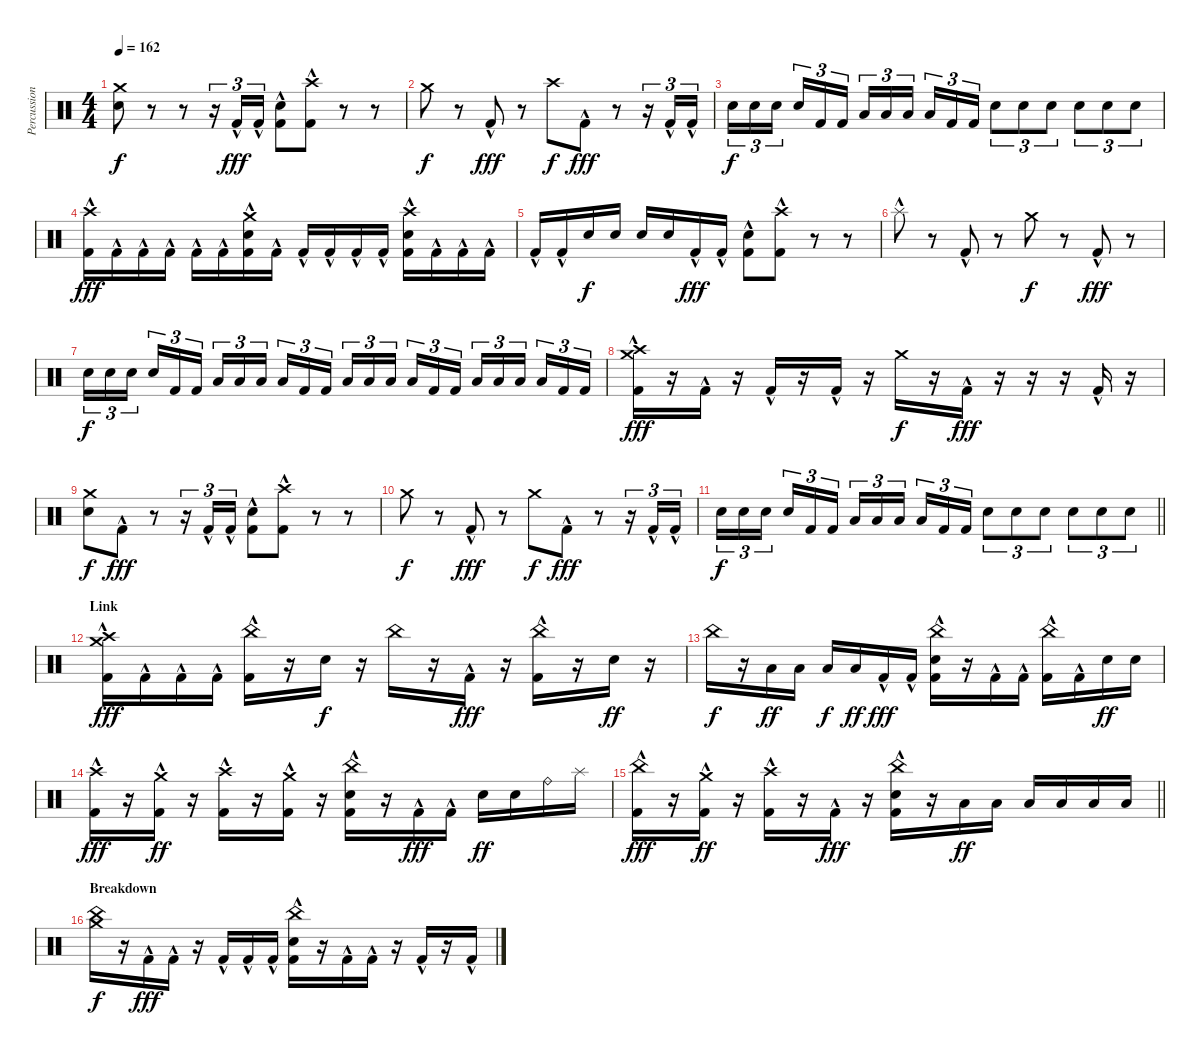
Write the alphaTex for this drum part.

\track ("Percussion" "Percussion") {instrument percussion}
\staff {score}
\articulation defaults
\ts (4 4)
\tempo 162
\clef neutral
\ks c
("Crash medium (hit)" "Electric Snare (hit)").8{dy f} r.8 r.8 r.16{tu (3 2)} "Kick (hit) 2"{hac}.16{tu (3 2) dy fff} "Kick (hit) 2"{hac}.16{tu (3 2)} ("Kick (hit) 2"{hac} "Electric Snare (hit)").8 ("Kick (hit) 2"{hac} "Crash high (hit)").8 r.8 r.8 |
"Crash medium (hit)".8{dy f} r.8 "Kick (hit) 2"{hac}.8{dy fff} r.8 "Crash high (hit)".8{dy f} "Kick (hit) 2"{hac}.8{dy fff} r.8 r.16{tu (3 2)} "Kick (hit) 2"{hac}.16{tu (3 2)} "Kick (hit) 2"{hac}.16{tu (3 2)} |
"Electric Snare (hit)".16{tu (3 2) dy f} "Electric Snare (hit)".16{tu (3 2)} "Electric Snare (hit)".16{tu (3 2) beam splitsecondary} "Electric Snare (hit)".16{tu (3 2)} "Kick (hit) 2".16{tu (3 2)} "Kick (hit) 2".16{tu (3 2)} "Low Tom (hit)".16{tu (3 2)} "Low Tom (hit)".16{tu (3 2)} "Low Tom (hit)".16{tu (3 2) beam splitsecondary} "Low Tom (hit)".16{tu (3 2)} "Kick (hit) 2".16{tu (3 2)} "Kick (hit) 2".16{tu (3 2)} "Electric Snare (hit)".8{tu (3 2)} "Electric Snare (hit)".8{tu (3 2)} "Electric Snare (hit)".8{tu (3 2)} "Electric Snare (hit)".8{tu (3 2)} "Electric Snare (hit)".8{tu (3 2)} "Electric Snare (hit)".8{tu (3 2)} |
("Kick (hit) 2"{hac} "Crash high (hit)").16{dy fff} "Kick (hit) 2"{hac}.16 "Kick (hit) 2"{hac}.16 "Kick (hit) 2"{hac}.16 "Kick (hit) 2"{hac}.16 "Kick (hit) 2"{hac}.16 ("Kick (hit) 2"{hac} "Crash medium (hit)" "Electric Snare (hit)").16 "Kick (hit) 2"{hac}.16 "Kick (hit) 2"{hac}.16 "Kick (hit) 2"{hac}.16 "Kick (hit) 2"{hac}.16 "Kick (hit) 2"{hac}.16 ("Kick (hit) 2"{hac} "Crash high (hit)" "Electric Snare (hit)").16 "Kick (hit) 2"{hac}.16 "Kick (hit) 2"{hac}.16 "Kick (hit) 2"{hac}.16 |
"Kick (hit) 2"{hac}.16 "Kick (hit) 2"{hac}.16 "Electric Snare (hit)".16{dy f} "Electric Snare (hit)".16 "Electric Snare (hit)".16 "Electric Snare (hit)".16 "Kick (hit) 2"{hac}.16{dy fff} "Kick (hit) 2"{hac}.16 ("Kick (hit) 2"{hac} "Electric Snare (hit)").8 ("Kick (hit) 2"{hac} "Crash high (hit)").8 r.8 r.8 |
"Splash (hit)"{hac}.8 r.8 "Kick (hit) 2"{hac}.8 r.8 "Crash medium (hit)".8{dy f} r.8 "Kick (hit) 2"{hac}.8{dy fff} r.8 |
"Electric Snare (hit)".16{tu (3 2) dy f} "Electric Snare (hit)".16{tu (3 2)} "Electric Snare (hit)".16{tu (3 2) beam splitsecondary} "Electric Snare (hit)".16{tu (3 2)} "Kick (hit) 2".16{tu (3 2)} "Kick (hit) 2".16{tu (3 2)} "Low Tom (hit)".16{tu (3 2)} "Low Tom (hit)".16{tu (3 2)} "Low Tom (hit)".16{tu (3 2) beam splitsecondary} "Low Tom (hit)".16{tu (3 2)} "Kick (hit) 2".16{tu (3 2)} "Kick (hit) 2".16{tu (3 2)} "Low Floor Tom (hit)".16{tu (3 2)} "Low Floor Tom (hit)".16{tu (3 2)} "Low Floor Tom (hit)".16{tu (3 2) beam splitsecondary} "Low Floor Tom (hit)".16{tu (3 2)} "Kick (hit) 2".16{tu (3 2)} "Kick (hit) 2".16{tu (3 2)} "Low Floor Tom (hit)".16{tu (3 2)} "Low Floor Tom (hit)".16{tu (3 2)} "Low Floor Tom (hit)".16{tu (3 2) beam splitsecondary} "Low Floor Tom (hit)".16{tu (3 2)} "Kick (hit) 2".16{tu (3 2)} "Kick (hit) 2".16{tu (3 2)} |
("Kick (hit) 2"{hac} "Crash medium (hit)" "Crash high (hit)").16{dy fff} r.16 "Kick (hit) 2"{hac}.16 r.16 "Kick (hit) 2"{hac}.16 r.16 "Kick (hit) 2"{hac}.16 r.16 "Crash medium (hit)".16{dy f} r.16 "Kick (hit) 2"{hac}.16{dy fff} r.16 r.16 r.16 "Kick (hit) 2"{hac}.16 r.16 |
("Crash medium (hit)" "Electric Snare (hit)").8{dy f} "Kick (hit) 2"{hac}.8{dy fff} r.8 r.16{tu (3 2)} "Kick (hit) 2"{hac}.16{tu (3 2)} "Kick (hit) 2"{hac}.16{tu (3 2)} ("Kick (hit) 2"{hac} "Electric Snare (hit)").8 ("Kick (hit) 2"{hac} "Crash high (hit)").8 r.8 r.8 |
"Crash medium (hit)".8{dy f} r.8 "Kick (hit) 2"{hac}.8{dy fff} r.8 "Crash medium (hit)".8{dy f} "Kick (hit) 2"{hac}.8{dy fff} r.8 r.16{tu (3 2)} "Kick (hit) 2"{hac}.16{tu (3 2)} "Kick (hit) 2"{hac}.16{tu (3 2)} |
\barLineRight lightlight "Electric Snare (hit)".16{tu (3 2) dy f} "Electric Snare (hit)".16{tu (3 2)} "Electric Snare (hit)".16{tu (3 2) beam splitsecondary} "Electric Snare (hit)".16{tu (3 2)} "Kick (hit) 2".16{tu (3 2)} "Kick (hit) 2".16{tu (3 2)} "Low Tom (hit)".16{tu (3 2)} "Low Tom (hit)".16{tu (3 2)} "Low Tom (hit)".16{tu (3 2) beam splitsecondary} "Low Tom (hit)".16{tu (3 2)} "Kick (hit) 2".16{tu (3 2)} "Kick (hit) 2".16{tu (3 2)} "Electric Snare (hit)".8{tu (3 2)} "Electric Snare (hit)".8{tu (3 2)} "Electric Snare (hit)".8{tu (3 2)} "Electric Snare (hit)".8{tu (3 2)} "Electric Snare (hit)".8{tu (3 2)} "Electric Snare (hit)".8{tu (3 2)}
|
\section ("" "Link")
("Kick (hit) 2"{hac} "Crash medium (hit)" "Crash high (hit)").16{dy fff} "Kick (hit) 2"{hac}.16 "Kick (hit) 2"{hac}.16 "Kick (hit) 2"{hac}.16 ("Kick (hit) 2"{hac} "China (hit)").16 r.16 "Electric Snare (hit)".16{dy f} r.16 "China (hit)".16 r.16 "Kick (hit) 2"{hac}.16{dy fff} r.16 ("Kick (hit) 2"{hac} "China (hit)").16 r.16 "Electric Snare (hit)".16{dy ff} r.16 |
"China (hit)".16{dy f} r.16 "Low Tom (hit)".16{dy ff} "Low Tom (hit)".16 "Low Floor Tom (hit)".16{dy f} "Low Floor Tom (hit)".16{dy ff} "Kick (hit) 2"{hac}.16{dy fff} "Kick (hit) 2"{hac}.16 ("Kick (hit) 2"{hac} "Electric Snare (hit)" "China (hit)").16 r.16 "Kick (hit) 2"{hac}.16 "Kick (hit) 2"{hac}.16 ("Kick (hit) 2"{hac} "China (hit)").16 "Kick (hit) 2"{hac}.16 "Electric Snare (hit)".16{dy ff} "Electric Snare (hit)".16 |
("Kick (hit) 2"{hac} "Crash high (hit)").16{dy fff} r.16 ("Kick (hit) 2"{hac} "Crash medium (hit)").16{dy ff} r.16 ("Kick (hit) 2"{hac} "Crash high (hit)").16 r.16 ("Kick (hit) 2"{hac} "Crash medium (hit)").16 r.16 ("Kick (hit) 2"{hac} "Electric Snare (hit)" "China (hit)").16 r.16 "Kick (hit) 2"{hac}.16{dy fff} "Kick (hit) 2"{hac}.16 "Electric Snare (hit)".16{dy ff} "Electric Snare (hit)".16 "Ride (bell)".16 "Splash (hit)".16 |
\barLineRight lightlight
("Kick (hit) 2"{hac} "China (hit)").16{dy fff} r.16 ("Kick (hit) 2"{hac} "Crash medium (hit)").16{dy ff} r.16 ("Kick (hit) 2"{hac} "Crash high (hit)").16 r.16 "Kick (hit) 2"{hac}.16{dy fff} r.16 ("Kick (hit) 2"{hac} "Electric Snare (hit)" "China (hit)").16 r.16 "Low Tom (hit)".16{dy ff} "Low Tom (hit)".16 "Low Floor Tom (hit)".16 "Low Floor Tom (hit)".16 "Low Floor Tom (hit)".16 "Low Floor Tom (hit)".16 |
\section ("" "Breakdown")
("China (hit)" "Crash medium (hit)").16{dy f} r.16 "Kick (hit) 2"{hac}.16{dy fff} "Kick (hit) 2"{hac}.16 r.16 "Kick (hit) 2"{hac}.16 "Kick (hit) 2"{hac}.16 "Kick (hit) 2"{hac}.16 ("Kick (hit) 2"{hac} "China (hit)" "Electric Snare (hit)").16 r.16 "Kick (hit) 2"{hac}.16 "Kick (hit) 2"{hac}.16 r.16 "Kick (hit) 2"{hac}.16 r.16 "Kick (hit) 2"{hac}.16
